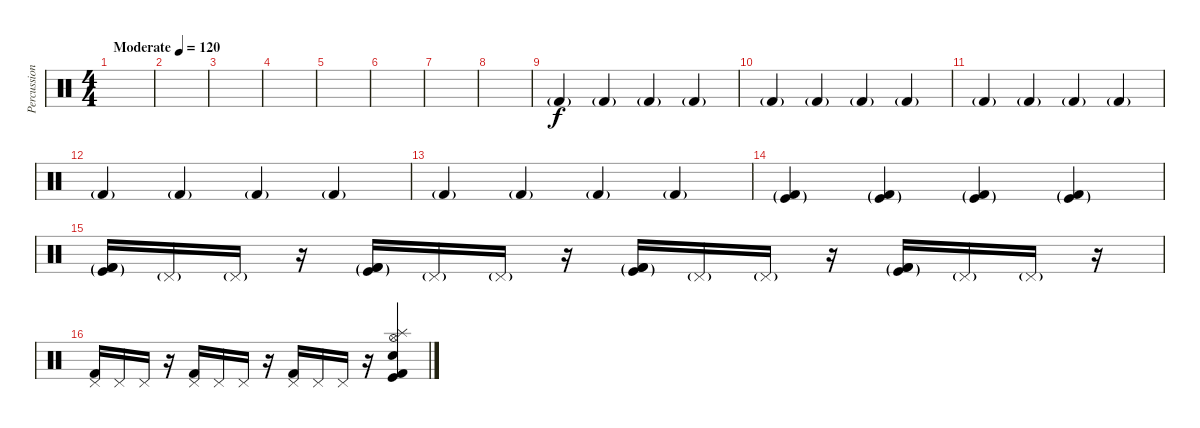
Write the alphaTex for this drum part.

\track ("Percussion" "Percussion") {instrument percussion}
\staff {score}
\articulation defaults
\ts (4 4)
\tempo (120 "Moderate")
\clef neutral
\ks c
|
|
|
|
|
|
|
|
"Kick (hit) 2"{g}.4{volume 8} "Kick (hit) 2"{g}.4{volume 16} "Kick (hit) 2"{g}.4 "Kick (hit) 2"{g}.4 |
"Kick (hit) 2"{g}.4 "Kick (hit) 2"{g}.4 "Kick (hit) 2"{g}.4 "Kick (hit) 2"{g}.4 |
"Kick (hit) 2"{g}.4 "Kick (hit) 2"{g}.4 "Kick (hit) 2"{g}.4 "Kick (hit) 2"{g}.4 |
"Kick (hit) 2"{g}.4 "Kick (hit) 2"{g}.4 "Kick (hit) 2"{g}.4 "Kick (hit) 2"{g}.4 |
"Kick (hit) 2"{g}.4 "Kick (hit) 2"{g}.4 "Kick (hit) 2"{g}.4 "Kick (hit) 2"{g}.4 |
("Kick (hit)"{g} "Kick (hit) 2"{g}).4 ("Kick (hit)"{g} "Kick (hit) 2"{g}).4 ("Kick (hit)"{g} "Kick (hit) 2"{g}).4 ("Kick (hit)"{g} "Kick (hit) 2"{g}).4 |
("Kick (hit) 2"{g} "Kick (hit)"{g} "Kick (hit) 2"{g}).16 "Pedal Hi-Hat (hit)"{g}.16 "Pedal Hi-Hat (hit)"{g}.16 r.16 ("Kick (hit) 2"{g} "Kick (hit)"{g} "Kick (hit) 2"{g}).16 "Pedal Hi-Hat (hit)"{g}.16 "Pedal Hi-Hat (hit)"{g}.16 r.16 ("Kick (hit) 2"{g} "Kick (hit)"{g} "Kick (hit) 2"{g}).16 "Pedal Hi-Hat (hit)"{g}.16 "Pedal Hi-Hat (hit)"{g}.16 r.16 ("Kick (hit) 2"{g} "Kick (hit)"{g} "Kick (hit) 2"{g}).16 "Pedal Hi-Hat (hit)"{g}.16 "Pedal Hi-Hat (hit)"{g}.16 r.16 |
("Kick (hit) 2" "Pedal Hi-Hat (hit)").16{dy f balance 0} "Pedal Hi-Hat (hit)".16 "Pedal Hi-Hat (hit)".16 r.16 ("Kick (hit) 2" "Pedal Hi-Hat (hit)").16{balance 16} "Pedal Hi-Hat (hit)".16 "Pedal Hi-Hat (hit)".16 r.16 ("Kick (hit) 2" "Pedal Hi-Hat (hit)").16{balance 0} "Pedal Hi-Hat (hit)".16 "Pedal Hi-Hat (hit)".16 r.16 ("Hi-Hat (open)" "Splash (hit)" "Kick (hit)" "Kick (hit) 2" "Snare (hit) 2").4{balance 8}
